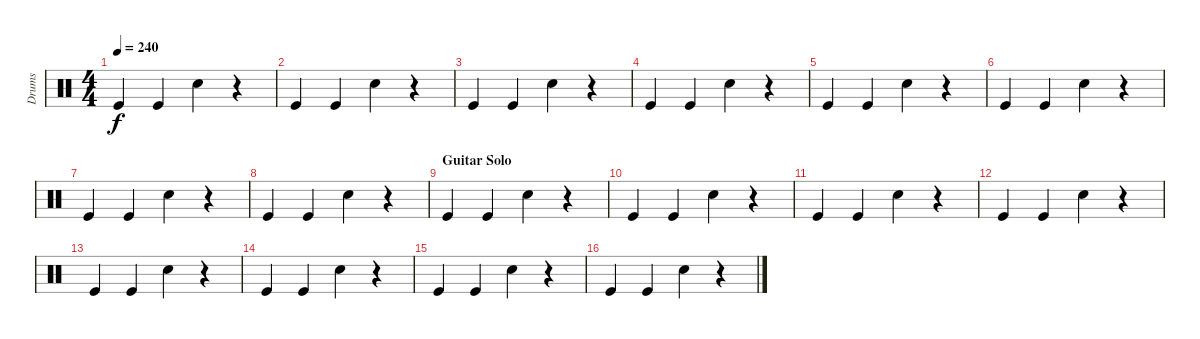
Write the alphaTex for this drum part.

\track ("Drums" "Drums") {instrument percussion}
\staff {score}
\articulation defaults
\ts (4 4)
\tempo 240
\clef neutral
\ks c "Kick (hit)".4{dy f} "Kick (hit)".4 "Snare (hit) 2".4
r.4 |
"Kick (hit)".4 "Kick (hit)".4 "Snare (hit) 2".4 r.4 |
"Kick (hit)".4 "Kick (hit)".4 "Snare (hit) 2".4 r.4 |
"Kick (hit)".4 "Kick (hit)".4 "Snare (hit) 2".4 r.4 |
"Kick (hit)".4 "Kick (hit)".4 "Snare (hit) 2".4 r.4 |
"Kick (hit)".4 "Kick (hit)".4 "Snare (hit) 2".4 r.4 |
"Kick (hit)".4 "Kick (hit)".4 "Snare (hit) 2".4 r.4 |
"Kick (hit)".4 "Kick (hit)".4 "Snare (hit) 2".4 r.4 |
\section ("" "Guitar Solo")
"Kick (hit)".4 "Kick (hit)".4 "Snare (hit) 2".4 r.4 |
"Kick (hit)".4 "Kick (hit)".4 "Snare (hit) 2".4 r.4 |
"Kick (hit)".4 "Kick (hit)".4 "Snare (hit) 2".4 r.4 |
"Kick (hit)".4 "Kick (hit)".4 "Snare (hit) 2".4 r.4 |
"Kick (hit)".4 "Kick (hit)".4 "Snare (hit) 2".4 r.4 |
"Kick (hit)".4 "Kick (hit)".4 "Snare (hit) 2".4 r.4 |
"Kick (hit)".4 "Kick (hit)".4 "Snare (hit) 2".4 r.4 |
"Kick (hit)".4 "Kick (hit)".4 "Snare (hit) 2".4 r.4
